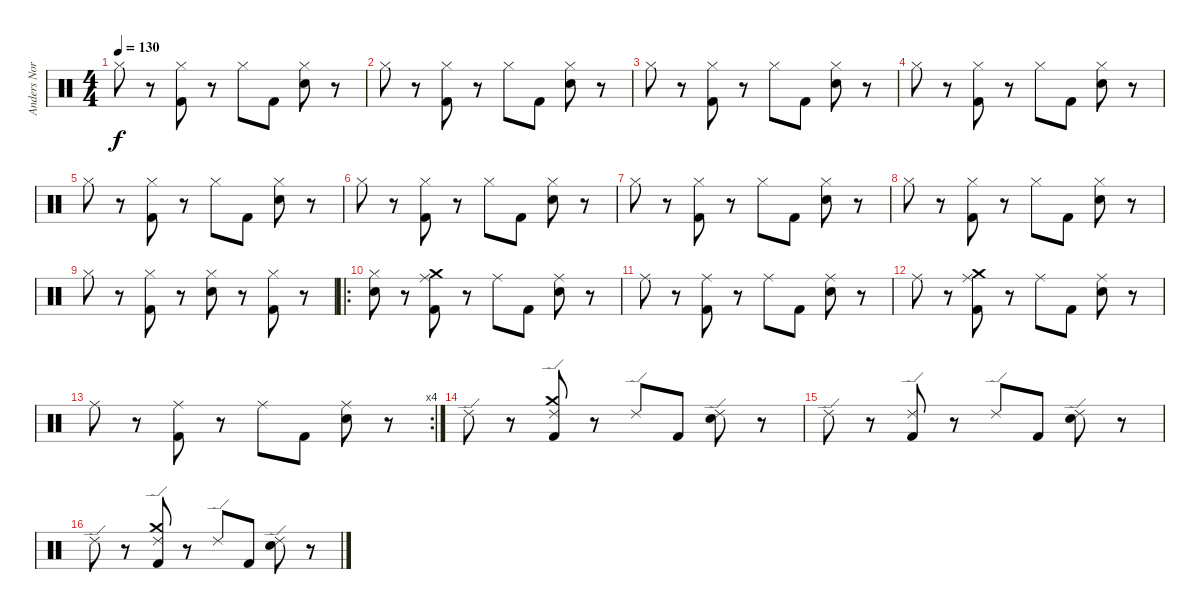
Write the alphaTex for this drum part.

\track ("Anders Nordin" "Anders Nor") {instrument percussion}
\staff {score}
\articulation defaults
\ts (4 4)
\tempo 130
\clef neutral
\ks c "Hi-Hat (closed)".8{dy f}
r.8 ("Hi-Hat (closed)" "Kick (hit) 2").8 r.8 "Hi-Hat (closed)".8 "Kick (hit) 2".8 ("Hi-Hat (closed)" "Snare (hit) 2").8 r.8 |
"Hi-Hat (closed)".8 r.8 ("Hi-Hat (closed)" "Kick (hit) 2").8 r.8 "Hi-Hat (closed)".8 "Kick (hit) 2".8 ("Hi-Hat (closed)" "Snare (hit) 2").8 r.8 |
"Hi-Hat (closed)".8 r.8 ("Hi-Hat (closed)" "Kick (hit) 2").8 r.8 "Hi-Hat (closed)".8 "Kick (hit) 2".8 ("Hi-Hat (closed)" "Snare (hit) 2").8 r.8 |
"Hi-Hat (closed)".8 r.8 ("Hi-Hat (closed)" "Kick (hit) 2").8 r.8 "Hi-Hat (closed)".8 "Kick (hit) 2".8 ("Hi-Hat (closed)" "Snare (hit) 2").8 r.8 |
"Hi-Hat (closed)".8 r.8 ("Hi-Hat (closed)" "Kick (hit) 2").8 r.8 "Hi-Hat (closed)".8 "Kick (hit) 2".8 ("Hi-Hat (closed)" "Snare (hit) 2").8 r.8 |
"Hi-Hat (closed)".8 r.8 ("Hi-Hat (closed)" "Kick (hit) 2").8 r.8 "Hi-Hat (closed)".8 "Kick (hit) 2".8 ("Hi-Hat (closed)" "Snare (hit) 2").8 r.8 |
"Hi-Hat (closed)".8 r.8 ("Hi-Hat (closed)" "Kick (hit) 2").8 r.8 "Hi-Hat (closed)".8 "Kick (hit) 2".8 ("Hi-Hat (closed)" "Snare (hit) 2").8 r.8 |
"Hi-Hat (closed)".8 r.8 ("Hi-Hat (closed)" "Kick (hit) 2").8 r.8 "Hi-Hat (closed)".8 "Kick (hit) 2".8 ("Hi-Hat (closed)" "Snare (hit) 2").8 r.8 |
"Hi-Hat (closed)".8 r.8 ("Hi-Hat (closed)" "Kick (hit) 2").8 r.8 ("Hi-Hat (closed)" "Snare (hit) 2").8 r.8 ("Hi-Hat (closed)" "Kick (hit) 2").8 r.8 |
\ro
("Hi-Hat (closed)" "Snare (hit) 2").8 r.8 ("Ride (middle)" "Crash medium (hit)" "Kick (hit) 2").8 r.8 "Ride (middle)".8 "Kick (hit) 2".8 ("Ride (middle)" "Snare (hit) 2").8 r.8 |
"Ride (middle)".8 r.8 ("Ride (middle)" "Kick (hit) 2").8 r.8 "Ride (middle)".8 "Kick (hit) 2".8 ("Ride (middle)" "Snare (hit) 2").8 r.8 |
"Ride (middle)".8 r.8 ("Ride (middle)" "Crash medium (hit)" "Kick (hit) 2").8 r.8 "Ride (middle)".8 "Kick (hit) 2".8 ("Ride (middle)" "Snare (hit) 2").8 r.8 |
\rc 4 "Ride (middle)".8
r.8 ("Ride (middle)" "Kick (hit) 2").8 r.8 "Ride (middle)".8 "Kick (hit) 2".8 ("Ride (middle)" "Snare (hit) 2").8 r.8 |
"Ride (edge) 2".8 r.8 ("Ride (edge) 2" "Crash medium (hit)" "Kick (hit) 2").8 r.8 "Ride (edge) 2".8 "Kick (hit) 2".8 ("Ride (edge) 2" "Snare (hit) 2").8 r.8 |
"Ride (edge) 2".8 r.8 ("Ride (edge) 2" "Kick (hit) 2").8 r.8 "Ride (edge) 2".8 "Kick (hit) 2".8 ("Ride (edge) 2" "Snare (hit) 2").8 r.8 |
"Ride (edge) 2".8 r.8 ("Ride (edge) 2" "Crash medium (hit)" "Kick (hit) 2").8 r.8 "Ride (edge) 2".8 "Kick (hit) 2".8 ("Ride (edge) 2" "Snare (hit) 2").8 r.8
